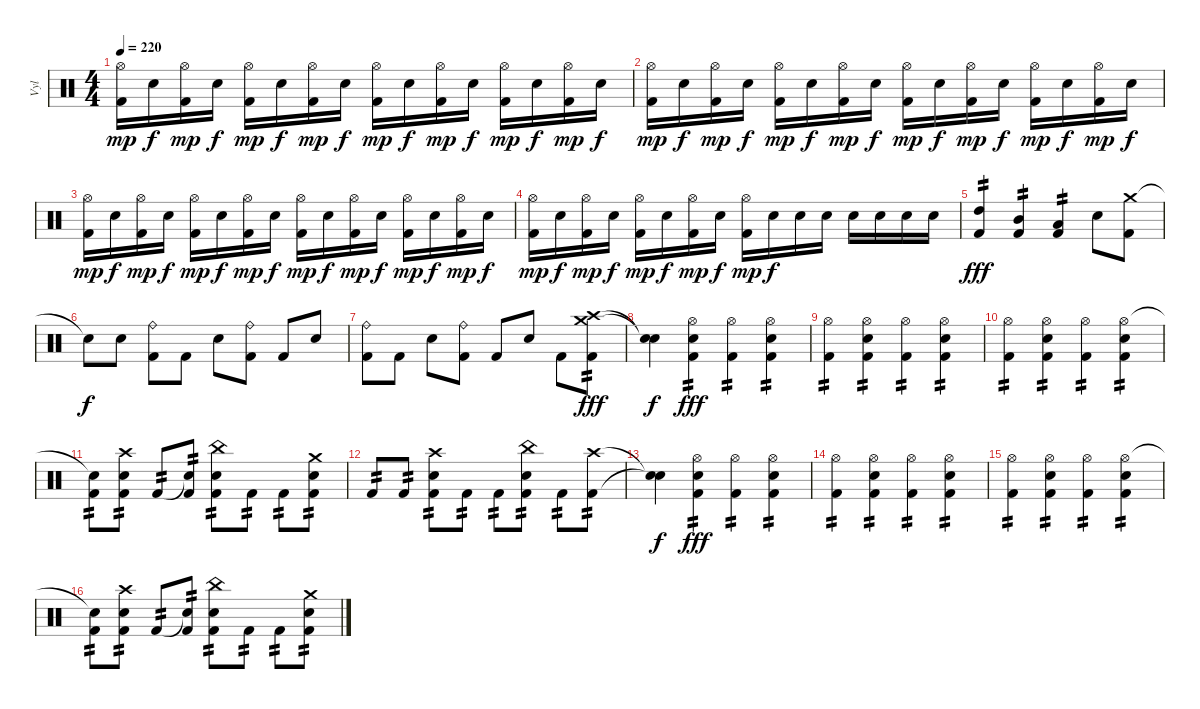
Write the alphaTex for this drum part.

\track ("Vyl" "Vyl") {instrument percussion}
\staff {score}
\articulation defaults
\ts (4 4)
\tempo 220
\clef neutral
\ks c
("Hi-Hat (open)" "Kick (hit) 2").16{dy mp} "Snare (hit) 2".16{dy f} ("Hi-Hat (open)" "Kick (hit) 2").16{dy mp} "Snare (hit) 2".16{dy f} ("Hi-Hat (open)" "Kick (hit) 2").16{dy mp} "Snare (hit) 2".16{dy f} ("Hi-Hat (open)" "Kick (hit) 2").16{dy mp} "Snare (hit) 2".16{dy f} ("Hi-Hat (open)" "Kick (hit) 2").16{dy mp} "Snare (hit) 2".16{dy f} ("Hi-Hat (open)" "Kick (hit) 2").16{dy mp} "Snare (hit) 2".16{dy f} ("Hi-Hat (open)" "Kick (hit) 2").16{dy mp} "Snare (hit) 2".16{dy f} ("Hi-Hat (open)" "Kick (hit) 2").16{dy mp} "Snare (hit) 2".16{dy f} |
("Hi-Hat (open)" "Kick (hit) 2").16{dy mp} "Snare (hit) 2".16{dy f} ("Hi-Hat (open)" "Kick (hit) 2").16{dy mp} "Snare (hit) 2".16{dy f} ("Hi-Hat (open)" "Kick (hit) 2").16{dy mp} "Snare (hit) 2".16{dy f} ("Hi-Hat (open)" "Kick (hit) 2").16{dy mp} "Snare (hit) 2".16{dy f} ("Hi-Hat (open)" "Kick (hit) 2").16{dy mp} "Snare (hit) 2".16{dy f} ("Hi-Hat (open)" "Kick (hit) 2").16{dy mp} "Snare (hit) 2".16{dy f} ("Hi-Hat (open)" "Kick (hit) 2").16{dy mp} "Snare (hit) 2".16{dy f} ("Hi-Hat (open)" "Kick (hit) 2").16{dy mp} "Snare (hit) 2".16{dy f} |
("Hi-Hat (open)" "Kick (hit) 2").16{dy mp} "Snare (hit) 2".16{dy f} ("Hi-Hat (open)" "Kick (hit) 2").16{dy mp} "Snare (hit) 2".16{dy f} ("Hi-Hat (open)" "Kick (hit) 2").16{dy mp} "Snare (hit) 2".16{dy f} ("Hi-Hat (open)" "Kick (hit) 2").16{dy mp} "Snare (hit) 2".16{dy f} ("Hi-Hat (open)" "Kick (hit) 2").16{dy mp} "Snare (hit) 2".16{dy f} ("Hi-Hat (open)" "Kick (hit) 2").16{dy mp} "Snare (hit) 2".16{dy f} ("Hi-Hat (open)" "Kick (hit) 2").16{dy mp} "Snare (hit) 2".16{dy f} ("Hi-Hat (open)" "Kick (hit) 2").16{dy mp} "Snare (hit) 2".16{dy f} |
("Hi-Hat (open)" "Kick (hit) 2").16{dy mp} "Snare (hit) 2".16{dy f} ("Hi-Hat (open)" "Kick (hit) 2").16{dy mp} "Snare (hit) 2".16{dy f} ("Hi-Hat (open)" "Kick (hit) 2").16{dy mp} "Snare (hit) 2".16{dy f} ("Hi-Hat (open)" "Kick (hit) 2").16{dy mp} "Snare (hit) 2".16{dy f} ("Hi-Hat (open)" "Kick (hit) 2").16{dy mp} "Snare (hit) 2".16{dy f} "Snare (hit) 2".16 "Snare (hit) 2".16 "Snare (hit) 2".16 "Snare (hit) 2".16 "Snare (hit) 2".16 "Snare (hit) 2".16 |
("Kick (hit) 2" "High Tom (hit)").4{tp 2 dy fff} ("Kick (hit) 2" "Mid Tom (hit)").4{tp 2} ("Kick (hit) 2" "Low Tom (hit)").4{tp 2} "Snare (hit) 2".8 ("Crash medium (hit)" "Kick (hit) 2").8 |
"Snare (hit)"{t}.8{dy f} "Snare (hit) 2".8 ("Ride (bell)" "Kick (hit) 2").8 "Kick (hit) 2".8 "Snare (hit) 2".8 ("Ride (bell)" "Kick (hit) 2").8 "Kick (hit) 2".8 "Snare (hit) 2".8 |
("Ride (bell)" "Kick (hit) 2").8 "Kick (hit) 2".8 "Snare (hit) 2".8 ("Ride (bell)" "Kick (hit) 2").8 "Kick (hit) 2".8 "Snare (hit) 2".8 "Kick (hit) 2".8 ("Crash high (hit)" "Crash medium (hit)" "Kick (hit) 2").8{tp 2 dy fff} |
("Snare (hit)"{t} "Snare (hit)"{t}).4{dy f} ("Hi-Hat (open)" "Snare (hit) 2" "Kick (hit) 2").4{tp 2 dy fff} ("Hi-Hat (open)" "Kick (hit) 2").4{tp 2} ("Hi-Hat (open)" "Snare (hit) 2" "Kick (hit) 2").4{tp 2} |
("Hi-Hat (open)" "Kick (hit) 2").4{tp 2} ("Hi-Hat (open)" "Snare (hit) 2" "Kick (hit) 2").4{tp 2} ("Hi-Hat (open)" "Kick (hit) 2").4{tp 2} ("Hi-Hat (open)" "Snare (hit) 2" "Kick (hit) 2").4{tp 2} |
("Hi-Hat (open)" "Kick (hit) 2").4{tp 2} ("Hi-Hat (open)" "Snare (hit) 2" "Kick (hit) 2").4{tp 2} ("Hi-Hat (open)" "Kick (hit) 2").4{tp 2} ("Hi-Hat (open)" "Snare (hit) 2" "Kick (hit) 2").4{tp 2} |
("Snare (hit)"{t} "Kick (hit) 2").8{tp 2} ("Crash high (hit)" "Snare (hit) 2" "Kick (hit) 2").8{tp 2} "Kick (hit) 2".8{tp 2} ("Snare (hit)"{t} "Kick (hit) 2").8{tp 2} ("China (hit)" "Snare (hit) 2" "Kick (hit) 2").8{tp 2} "Kick (hit) 2".8{tp 2} "Kick (hit) 2".8{tp 2} ("Crash medium (hit)" "Snare (hit) 2" "Kick (hit) 2").8{tp 2} |
"Kick (hit) 2".8{tp 2} "Kick (hit) 2".8{tp 2} ("Crash high (hit)" "Snare (hit) 2" "Kick (hit) 2").8{tp 2} "Kick (hit) 2".8{tp 2} "Kick (hit) 2".8{tp 2} ("China (hit)" "Snare (hit) 2" "Kick (hit) 2").8{tp 2} "Kick (hit) 2".8{tp 2} ("Crash high (hit)" "Kick (hit) 2").8{tp 2} |
("Snare (hit)"{t} "Snare (hit)"{t}).4{dy f} ("Hi-Hat (open)" "Snare (hit) 2" "Kick (hit) 2").4{tp 2 dy fff} ("Hi-Hat (open)" "Kick (hit) 2").4{tp 2} ("Hi-Hat (open)" "Snare (hit) 2" "Kick (hit) 2").4{tp 2} |
("Hi-Hat (open)" "Kick (hit) 2").4{tp 2} ("Hi-Hat (open)" "Snare (hit) 2" "Kick (hit) 2").4{tp 2} ("Hi-Hat (open)" "Kick (hit) 2").4{tp 2} ("Hi-Hat (open)" "Snare (hit) 2" "Kick (hit) 2").4{tp 2} |
("Hi-Hat (open)" "Kick (hit) 2").4{tp 2} ("Hi-Hat (open)" "Snare (hit) 2" "Kick (hit) 2").4{tp 2} ("Hi-Hat (open)" "Kick (hit) 2").4{tp 2} ("Hi-Hat (open)" "Snare (hit) 2" "Kick (hit) 2").4{tp 2} |
("Snare (hit)"{t} "Kick (hit) 2").8{tp 2} ("Crash high (hit)" "Snare (hit) 2" "Kick (hit) 2").8{tp 2} "Kick (hit) 2".8{tp 2} ("Snare (hit)"{t} "Kick (hit) 2").8{tp 2} ("China (hit)" "Snare (hit) 2" "Kick (hit) 2").8{tp 2} "Kick (hit) 2".8{tp 2} "Kick (hit) 2".8{tp 2} ("Crash medium (hit)" "Snare (hit) 2" "Kick (hit) 2").8{tp 2}
